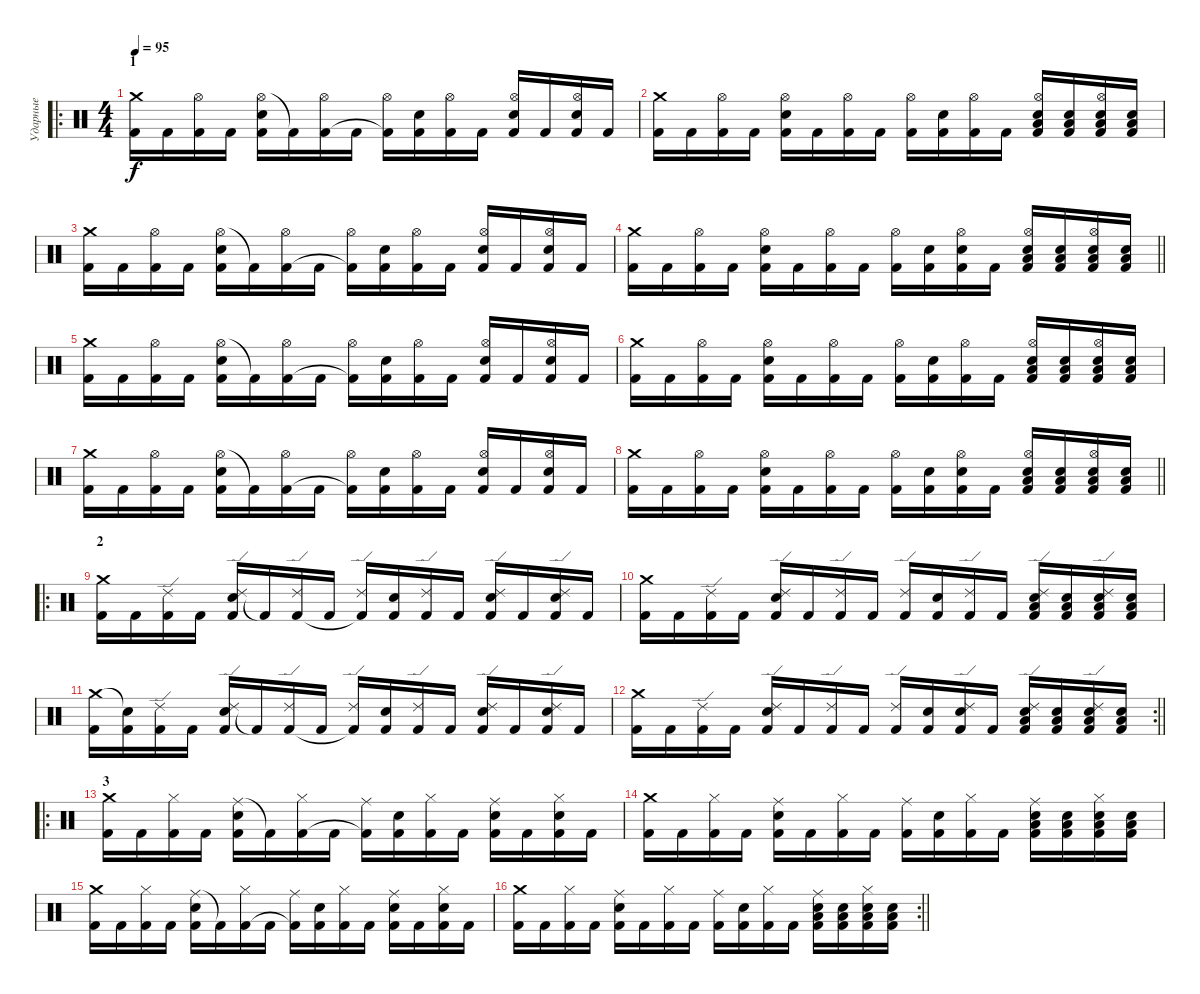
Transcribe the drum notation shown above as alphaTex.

\track ("Ударные" "Ударные") {instrument percussion}
\staff {score}
\articulation defaults
\ro
\ts (4 4)
\section ("" "1")
\tempo 95
\clef neutral
\ks c
("Crash medium (hit)" "Kick (hit) 2").16{dy f} "Kick (hit) 2".16 ("Hi-Hat (open)" "Kick (hit) 2").16 "Kick (hit) 2".16 ("Hi-Hat (open)" "Electric Snare (hit)" "Kick (hit) 2").16 "Kick (hit) 2"{t}.16 ("Hi-Hat (open)" "Kick (hit) 2").16 "Kick (hit) 2".16 ("Hi-Hat (open)" "Kick (hit) 2"{t}).16 ("Electric Snare (hit)" "Kick (hit) 2").16 ("Hi-Hat (open)" "Kick (hit) 2").16 "Kick (hit) 2".16 ("Hi-Hat (open)" "Electric Snare (hit)" "Kick (hit) 2").16 "Kick (hit) 2".16 ("Hi-Hat (open)" "Electric Snare (hit)" "Kick (hit) 2").16 "Kick (hit) 2".16 |
("Crash medium (hit)" "Kick (hit) 2").16 "Kick (hit) 2".16 ("Hi-Hat (open)" "Kick (hit) 2").16 "Kick (hit) 2".16 ("Hi-Hat (open)" "Electric Snare (hit)" "Kick (hit) 2").16 "Kick (hit) 2".16 ("Hi-Hat (open)" "Kick (hit) 2").16 "Kick (hit) 2".16 ("Hi-Hat (open)" "Kick (hit) 2").16 ("Electric Snare (hit)" "Kick (hit) 2").16 ("Hi-Hat (open)" "Kick (hit) 2").16 "Kick (hit) 2".16 ("Hi-Hat (open)" "Electric Snare (hit)" "Low Floor Tom (hit)" "Kick (hit) 2").16 ("Electric Snare (hit)" "Low Floor Tom (hit)" "Kick (hit) 2").16 ("Hi-Hat (open)" "Electric Snare (hit)" "Low Floor Tom (hit)" "Kick (hit) 2").16 ("Electric Snare (hit)" "Low Floor Tom (hit)" "Kick (hit) 2").16 |
("Crash medium (hit)" "Kick (hit) 2").16 "Kick (hit) 2".16 ("Hi-Hat (open)" "Kick (hit) 2").16 "Kick (hit) 2".16 ("Hi-Hat (open)" "Electric Snare (hit)" "Kick (hit) 2").16 "Kick (hit) 2"{t}.16 ("Hi-Hat (open)" "Kick (hit) 2").16 "Kick (hit) 2".16 ("Hi-Hat (open)" "Kick (hit) 2"{t}).16 ("Electric Snare (hit)" "Kick (hit) 2").16 ("Hi-Hat (open)" "Kick (hit) 2").16 "Kick (hit) 2".16 ("Hi-Hat (open)" "Electric Snare (hit)" "Kick (hit) 2").16 "Kick (hit) 2".16 ("Hi-Hat (open)" "Electric Snare (hit)" "Kick (hit) 2").16 "Kick (hit) 2".16 |
\barLineRight lightlight
("Crash medium (hit)" "Kick (hit) 2").16 "Kick (hit) 2".16 ("Hi-Hat (open)" "Kick (hit) 2").16 "Kick (hit) 2".16 ("Hi-Hat (open)" "Electric Snare (hit)" "Kick (hit) 2").16 "Kick (hit) 2".16 ("Hi-Hat (open)" "Kick (hit) 2").16 "Kick (hit) 2".16 ("Hi-Hat (open)" "Kick (hit) 2").16 ("Electric Snare (hit)" "Kick (hit) 2").16 ("Hi-Hat (open)" "Snare (hit)" "Kick (hit) 2").16 "Kick (hit) 2".16 ("Hi-Hat (open)" "Electric Snare (hit)" "Low Floor Tom (hit)" "Kick (hit) 2").16 ("Electric Snare (hit)" "Low Floor Tom (hit)" "Kick (hit) 2").16 ("Hi-Hat (open)" "Electric Snare (hit)" "Low Floor Tom (hit)" "Kick (hit) 2").16 ("Electric Snare (hit)" "Low Floor Tom (hit)" "Kick (hit) 2").16 |
("Crash medium (hit)" "Kick (hit) 2").16 "Kick (hit) 2".16 ("Hi-Hat (open)" "Kick (hit) 2").16 "Kick (hit) 2".16 ("Hi-Hat (open)" "Electric Snare (hit)" "Kick (hit) 2").16 "Kick (hit) 2"{t}.16 ("Hi-Hat (open)" "Kick (hit) 2").16 "Kick (hit) 2".16 ("Hi-Hat (open)" "Kick (hit) 2"{t}).16 ("Electric Snare (hit)" "Kick (hit) 2").16 ("Hi-Hat (open)" "Kick (hit) 2").16 "Kick (hit) 2".16 ("Hi-Hat (open)" "Electric Snare (hit)" "Kick (hit) 2").16 "Kick (hit) 2".16 ("Hi-Hat (open)" "Electric Snare (hit)" "Kick (hit) 2").16 "Kick (hit) 2".16 |
("Crash medium (hit)" "Kick (hit) 2").16 "Kick (hit) 2".16 ("Hi-Hat (open)" "Kick (hit) 2").16 "Kick (hit) 2".16 ("Hi-Hat (open)" "Electric Snare (hit)" "Kick (hit) 2").16 "Kick (hit) 2".16 ("Hi-Hat (open)" "Kick (hit) 2").16 "Kick (hit) 2".16 ("Hi-Hat (open)" "Kick (hit) 2").16 ("Electric Snare (hit)" "Kick (hit) 2").16 ("Hi-Hat (open)" "Kick (hit) 2").16 "Kick (hit) 2".16 ("Hi-Hat (open)" "Electric Snare (hit)" "Low Floor Tom (hit)" "Kick (hit) 2").16 ("Electric Snare (hit)" "Low Floor Tom (hit)" "Kick (hit) 2").16 ("Hi-Hat (open)" "Electric Snare (hit)" "Low Floor Tom (hit)" "Kick (hit) 2").16 ("Electric Snare (hit)" "Low Floor Tom (hit)" "Kick (hit) 2").16 |
("Crash medium (hit)" "Kick (hit) 2").16 "Kick (hit) 2".16 ("Hi-Hat (open)" "Kick (hit) 2").16 "Kick (hit) 2".16 ("Hi-Hat (open)" "Electric Snare (hit)" "Kick (hit) 2").16 "Kick (hit) 2"{t}.16 ("Hi-Hat (open)" "Kick (hit) 2").16 "Kick (hit) 2".16 ("Hi-Hat (open)" "Kick (hit) 2"{t}).16 ("Electric Snare (hit)" "Kick (hit) 2").16 ("Hi-Hat (open)" "Kick (hit) 2").16 "Kick (hit) 2".16 ("Hi-Hat (open)" "Electric Snare (hit)" "Kick (hit) 2").16 "Kick (hit) 2".16 ("Hi-Hat (open)" "Electric Snare (hit)" "Kick (hit) 2").16 "Kick (hit) 2".16 |
\barLineRight lightlight
("Crash medium (hit)" "Kick (hit) 2").16 "Kick (hit) 2".16 ("Hi-Hat (open)" "Kick (hit) 2").16 "Kick (hit) 2".16 ("Hi-Hat (open)" "Electric Snare (hit)" "Kick (hit) 2").16 "Kick (hit) 2".16 ("Hi-Hat (open)" "Kick (hit) 2").16 "Kick (hit) 2".16 ("Hi-Hat (open)" "Kick (hit) 2").16 ("Electric Snare (hit)" "Kick (hit) 2").16 ("Hi-Hat (open)" "Snare (hit)" "Kick (hit) 2").16 "Kick (hit) 2".16 ("Hi-Hat (open)" "Electric Snare (hit)" "Low Floor Tom (hit)" "Kick (hit) 2").16 ("Electric Snare (hit)" "Low Floor Tom (hit)" "Kick (hit) 2").16 ("Hi-Hat (open)" "Electric Snare (hit)" "Low Floor Tom (hit)" "Kick (hit) 2").16 ("Electric Snare (hit)" "Low Floor Tom (hit)" "Kick (hit) 2").16 |
\ro
\section ("" "2")
("Crash medium (hit)" "Kick (hit) 2").16 "Kick (hit) 2".16 ("Ride (edge) 2" "Kick (hit) 2").16 "Kick (hit) 2".16 ("Ride (edge) 2" "Electric Snare (hit)" "Kick (hit) 2").16 "Kick (hit) 2"{t}.16 ("Ride (edge) 2" "Kick (hit) 2").16 "Kick (hit) 2".16 ("Ride (edge) 2" "Kick (hit) 2"{t}).16 ("Electric Snare (hit)" "Kick (hit) 2").16 ("Ride (edge) 2" "Kick (hit) 2").16 "Kick (hit) 2".16 ("Ride (edge) 2" "Electric Snare (hit)" "Kick (hit) 2").16 "Kick (hit) 2".16 ("Ride (edge) 2" "Electric Snare (hit)" "Kick (hit) 2").16 "Kick (hit) 2".16 |
("Crash medium (hit)" "Kick (hit) 2").16 "Kick (hit) 2".16 ("Ride (edge) 2" "Kick (hit) 2").16 "Kick (hit) 2".16 ("Ride (edge) 2" "Electric Snare (hit)" "Kick (hit) 2").16 "Kick (hit) 2".16 ("Ride (edge) 2" "Kick (hit) 2").16 "Kick (hit) 2".16 ("Ride (edge) 2" "Kick (hit) 2").16 ("Electric Snare (hit)" "Kick (hit) 2").16 ("Ride (edge) 2" "Kick (hit) 2").16 "Kick (hit) 2".16 ("Ride (edge) 2" "Electric Snare (hit)" "Low Floor Tom (hit)" "Kick (hit) 2").16 ("Electric Snare (hit)" "Low Floor Tom (hit)" "Kick (hit) 2").16 ("Ride (edge) 2" "Electric Snare (hit)" "Low Floor Tom (hit)" "Kick (hit) 2").16 ("Electric Snare (hit)" "Low Floor Tom (hit)" "Kick (hit) 2").16 |
("Crash medium (hit)" "Kick (hit) 2").16 ("Snare (hit)"{t} "Kick (hit) 2").16 ("Ride (edge) 2" "Kick (hit) 2").16 "Kick (hit) 2".16 ("Ride (edge) 2" "Electric Snare (hit)" "Kick (hit) 2").16 "Kick (hit) 2"{t}.16 ("Ride (edge) 2" "Kick (hit) 2").16 "Kick (hit) 2".16 ("Ride (edge) 2" "Kick (hit) 2"{t}).16 ("Electric Snare (hit)" "Kick (hit) 2").16 ("Ride (edge) 2" "Kick (hit) 2").16 "Kick (hit) 2".16 ("Ride (edge) 2" "Electric Snare (hit)" "Kick (hit) 2").16 "Kick (hit) 2".16 ("Ride (edge) 2" "Electric Snare (hit)" "Kick (hit) 2").16 "Kick (hit) 2".16 |
\rc 2
\barLineRight lightlight
("Crash medium (hit)" "Kick (hit) 2").16 "Kick (hit) 2".16 ("Ride (edge) 2" "Kick (hit) 2").16 "Kick (hit) 2".16 ("Ride (edge) 2" "Electric Snare (hit)" "Kick (hit) 2").16 "Kick (hit) 2".16 ("Ride (edge) 2" "Kick (hit) 2").16 "Kick (hit) 2".16 ("Ride (edge) 2" "Kick (hit) 2").16 ("Electric Snare (hit)" "Kick (hit) 2").16 ("Ride (edge) 2" "Snare (hit)" "Kick (hit) 2").16 "Kick (hit) 2".16 ("Ride (edge) 2" "Electric Snare (hit)" "Low Floor Tom (hit)" "Kick (hit) 2").16 ("Electric Snare (hit)" "Low Floor Tom (hit)" "Kick (hit) 2").16 ("Ride (edge) 2" "Electric Snare (hit)" "Low Floor Tom (hit)" "Kick (hit) 2").16 ("Electric Snare (hit)" "Low Floor Tom (hit)" "Kick (hit) 2").16 |
\ro
\section ("" "3")
("Crash medium (hit)" "Kick (hit) 2").16 "Kick (hit) 2".16 ("Hi-Hat (closed)" "Kick (hit) 2").16 "Kick (hit) 2".16 ("Ride (middle)" "Electric Snare (hit)" "Kick (hit) 2").16 "Kick (hit) 2"{t}.16 ("Hi-Hat (closed)" "Kick (hit) 2").16 "Kick (hit) 2".16 ("Ride (middle)" "Kick (hit) 2"{t}).16 ("Electric Snare (hit)" "Kick (hit) 2").16 ("Hi-Hat (closed)" "Kick (hit) 2").16 "Kick (hit) 2".16 ("Ride (middle)" "Electric Snare (hit)" "Kick (hit) 2").16 "Kick (hit) 2".16 ("Hi-Hat (closed)" "Electric Snare (hit)" "Kick (hit) 2").16 "Kick (hit) 2".16 |
("Crash medium (hit)" "Kick (hit) 2").16 "Kick (hit) 2".16 ("Hi-Hat (closed)" "Kick (hit) 2").16 "Kick (hit) 2".16 ("Ride (middle)" "Electric Snare (hit)" "Kick (hit) 2").16 "Kick (hit) 2".16 ("Hi-Hat (closed)" "Kick (hit) 2").16 "Kick (hit) 2".16 ("Ride (middle)" "Kick (hit) 2").16 ("Electric Snare (hit)" "Kick (hit) 2").16 ("Hi-Hat (closed)" "Kick (hit) 2").16 "Kick (hit) 2".16 ("Ride (middle)" "Electric Snare (hit)" "Low Floor Tom (hit)" "Kick (hit) 2").16 ("Electric Snare (hit)" "Low Floor Tom (hit)" "Kick (hit) 2").16 ("Hi-Hat (closed)" "Electric Snare (hit)" "Low Floor Tom (hit)" "Kick (hit) 2").16 ("Electric Snare (hit)" "Low Floor Tom (hit)" "Kick (hit) 2").16 |
("Crash medium (hit)" "Kick (hit) 2").16 "Kick (hit) 2".16 ("Hi-Hat (closed)" "Kick (hit) 2").16 "Kick (hit) 2".16 ("Ride (middle)" "Electric Snare (hit)" "Kick (hit) 2").16 "Kick (hit) 2"{t}.16 ("Hi-Hat (closed)" "Kick (hit) 2").16 "Kick (hit) 2".16 ("Ride (middle)" "Kick (hit) 2"{t}).16 ("Electric Snare (hit)" "Kick (hit) 2").16 ("Hi-Hat (closed)" "Kick (hit) 2").16 "Kick (hit) 2".16 ("Ride (middle)" "Electric Snare (hit)" "Kick (hit) 2").16 "Kick (hit) 2".16 ("Hi-Hat (closed)" "Electric Snare (hit)" "Kick (hit) 2").16 "Kick (hit) 2".16 |
\rc 2
\barLineRight lightlight
("Crash medium (hit)" "Kick (hit) 2").16 "Kick (hit) 2".16 ("Hi-Hat (closed)" "Kick (hit) 2").16 "Kick (hit) 2".16 ("Ride (middle)" "Electric Snare (hit)" "Kick (hit) 2").16 "Kick (hit) 2".16 ("Hi-Hat (closed)" "Kick (hit) 2").16 "Kick (hit) 2".16 ("Ride (middle)" "Kick (hit) 2").16 ("Electric Snare (hit)" "Kick (hit) 2").16 ("Hi-Hat (closed)" "Kick (hit) 2").16 "Kick (hit) 2".16 ("Ride (middle)" "Electric Snare (hit)" "Low Floor Tom (hit)" "Kick (hit) 2").16 ("Electric Snare (hit)" "Low Floor Tom (hit)" "Kick (hit) 2").16 ("Hi-Hat (closed)" "Electric Snare (hit)" "Low Floor Tom (hit)" "Kick (hit) 2").16 ("Electric Snare (hit)" "Low Floor Tom (hit)" "Kick (hit) 2").16
